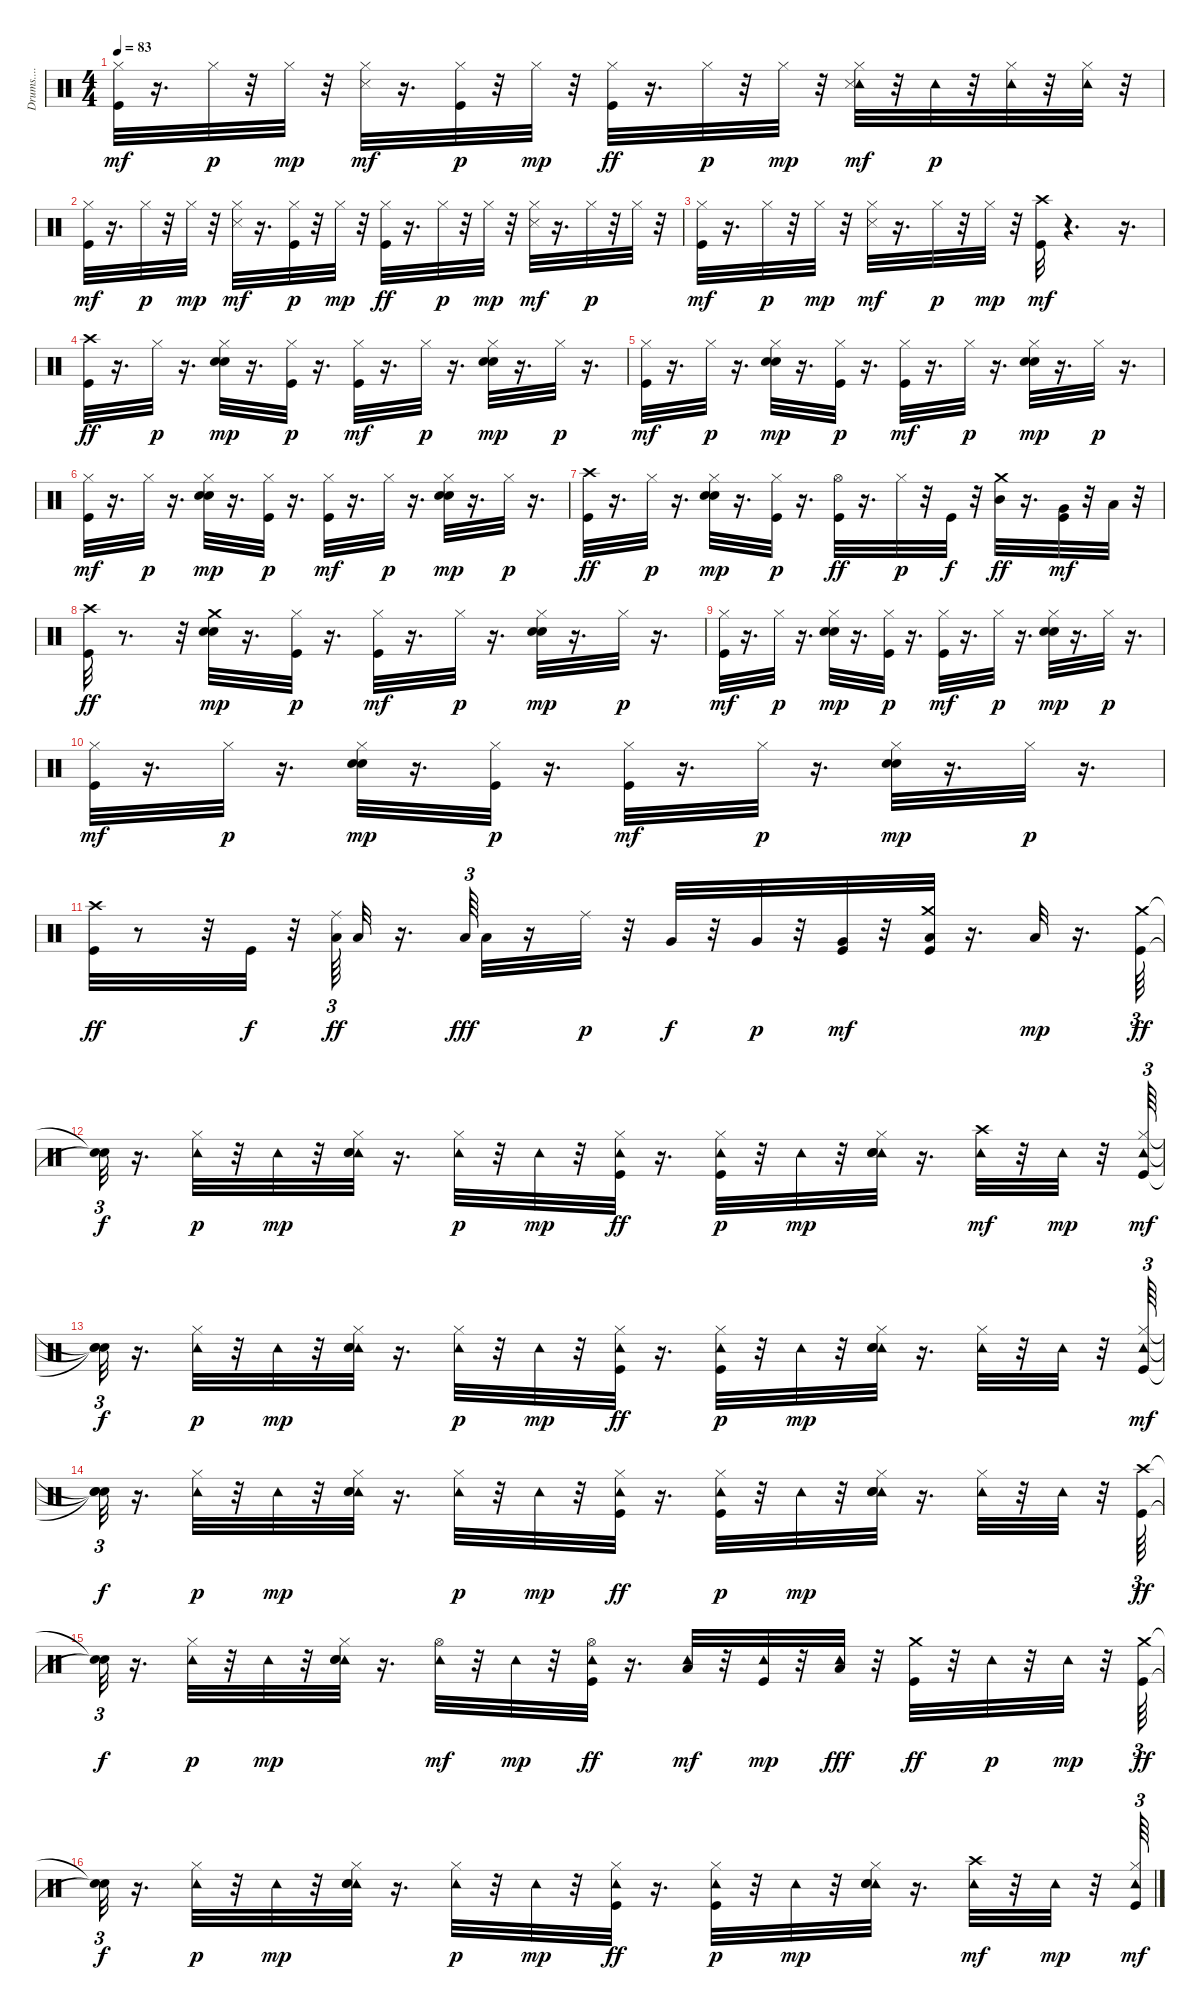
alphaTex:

\track ("Drums....           " "Drums.... ") {instrument percussion}
\staff {score}
\articulation defaults
\ts (4 4)
\tempo 83
\clef neutral
\ks c
("Kick (hit)" "Hi-Hat (closed)").32{dy mf} r.16{d} "Hi-Hat (closed)".32{dy p} r.32 "Hi-Hat (closed)".32{dy mp} r.32 ("Hi-Hat (closed)" "Snare (side stick) 3").32{dy mf} r.16{d} ("Kick (hit)" "Hi-Hat (closed)").32{dy p} r.32 "Hi-Hat (closed)".32{dy mp} r.32 ("Kick (hit)" "Hi-Hat (closed)").32{dy ff} r.16{d} "Hi-Hat (closed)".32{dy p} r.32 "Hi-Hat (closed)".32{dy mp} r.32 ("Tambourine (hit)" "Hi-Hat (closed)" "Snare (side stick) 3").32{dy mf} r.32 "Tambourine (hit)".32{dy p} r.32 ("Tambourine (hit)" "Hi-Hat (closed)").32 r.32 ("Tambourine (hit)" "Hi-Hat (closed)").32 r.32 |
("Kick (hit)" "Hi-Hat (closed)").32{dy mf} r.16{d} "Hi-Hat (closed)".32{dy p} r.32 "Hi-Hat (closed)".32{dy mp} r.32 ("Hi-Hat (closed)" "Snare (side stick) 3").32{dy mf} r.16{d} ("Kick (hit)" "Hi-Hat (closed)").32{dy p} r.32 "Hi-Hat (closed)".32{dy mp} r.32 ("Kick (hit)" "Hi-Hat (closed)").32{dy ff} r.16{d} "Hi-Hat (closed)".32{dy p} r.32 "Hi-Hat (closed)".32{dy mp} r.32 ("Hi-Hat (closed)" "Snare (side stick) 3").32{dy mf} r.16{d} "Hi-Hat (closed)".32{dy p} r.32 "Hi-Hat (closed)".32 r.32 |
("Kick (hit)" "Hi-Hat (closed)").32{dy mf} r.16{d} "Hi-Hat (closed)".32{dy p} r.32 "Hi-Hat (closed)".32{dy mp} r.32 ("Hi-Hat (closed)" "Snare (side stick) 3").32{dy mf} r.16{d} "Hi-Hat (closed)".32{dy p} r.32 "Hi-Hat (closed)".32{dy mp} r.32 ("Kick (hit)" "Crash high (hit)").32{dy mf} r.4{d} r.16{d} |
("Kick (hit)" "Crash high (hit)").32{dy ff} r.16{d} "Hi-Hat (closed)".32{dy p} r.16{d} ("Snare (hit) 2" "Hi-Hat (closed)" "Electric Snare (hit)").32{dy mp} r.16{d} ("Kick (hit)" "Hi-Hat (closed)").32{dy p} r.16{d} ("Kick (hit)" "Hi-Hat (closed)").32{dy mf} r.16{d} "Hi-Hat (closed)".32{dy p} r.16{d} ("Snare (hit) 2" "Hi-Hat (closed)" "Electric Snare (hit)").32{dy mp} r.16{d} "Hi-Hat (closed)".32{dy p} r.16{d} |
("Kick (hit)" "Hi-Hat (closed)").32{dy mf} r.16{d} "Hi-Hat (closed)".32{dy p} r.16{d} ("Snare (hit) 2" "Hi-Hat (closed)" "Electric Snare (hit)").32{dy mp} r.16{d} ("Kick (hit)" "Hi-Hat (closed)").32{dy p} r.16{d} ("Kick (hit)" "Hi-Hat (closed)").32{dy mf} r.16{d} "Hi-Hat (closed)".32{dy p} r.16{d} ("Snare (hit) 2" "Hi-Hat (closed)" "Electric Snare (hit)").32{dy mp} r.16{d} "Hi-Hat (closed)".32{dy p} r.16{d} |
("Kick (hit)" "Hi-Hat (closed)").32{dy mf} r.16{d} "Hi-Hat (closed)".32{dy p} r.16{d} ("Snare (hit) 2" "Hi-Hat (closed)" "Electric Snare (hit)").32{dy mp} r.16{d} ("Kick (hit)" "Hi-Hat (closed)").32{dy p} r.16{d} ("Kick (hit)" "Hi-Hat (closed)").32{dy mf} r.16{d} "Hi-Hat (closed)".32{dy p} r.16{d} ("Snare (hit) 2" "Hi-Hat (closed)" "Electric Snare (hit)").32{dy mp} r.16{d} "Hi-Hat (closed)".32{dy p} r.16{d} |
("Kick (hit)" "Crash high (hit)").32{dy ff} r.16{d} "Hi-Hat (closed)".32{dy p} r.16{d} ("Snare (hit) 2" "Hi-Hat (closed)" "Electric Snare (hit)").32{dy mp} r.16{d} ("Kick (hit)" "Hi-Hat (closed)").32{dy p} r.16{d} ("Kick (hit)" "Hi-Hat (open)").32{dy ff} r.16{d} "Hi-Hat (closed)".32{dy p} r.32 "Kick (hit)".32{dy f} r.32 ("Crash medium (hit)" "Mid Tom (hit)").32{dy ff} r.16{d} ("Kick (hit)" "Very Low Tom (hit)").32{dy mf} r.32 "Low Floor Tom (hit)".32 r.32 |
("Kick (hit)" "Crash high (hit)").32{dy ff} r.8{d} r.32 ("Snare (hit) 2" "Crash medium (hit)" "Electric Snare (hit)").32{dy mp} r.16{d} ("Kick (hit)" "Hi-Hat (closed)").32{dy p} r.16{d} ("Kick (hit)" "Hi-Hat (closed)").32{dy mf} r.16{d} "Hi-Hat (closed)".32{dy p} r.16{d} ("Snare (hit) 2" "Hi-Hat (closed)" "Electric Snare (hit)").32{dy mp} r.16{d} "Hi-Hat (closed)".32{dy p} r.16{d} |
("Kick (hit)" "Hi-Hat (closed)").32{dy mf} r.16{d} "Hi-Hat (closed)".32{dy p} r.16{d} ("Snare (hit) 2" "Hi-Hat (closed)" "Electric Snare (hit)").32{dy mp} r.16{d} ("Kick (hit)" "Hi-Hat (closed)").32{dy p} r.16{d} ("Kick (hit)" "Hi-Hat (closed)").32{dy mf} r.16{d} "Hi-Hat (closed)".32{dy p} r.16{d} ("Snare (hit) 2" "Hi-Hat (closed)" "Electric Snare (hit)").32{dy mp} r.16{d} "Hi-Hat (closed)".32{dy p} r.16{d} |
("Kick (hit)" "Hi-Hat (closed)").32{dy mf} r.16{d} "Hi-Hat (closed)".32{dy p} r.16{d} ("Snare (hit) 2" "Hi-Hat (closed)" "Electric Snare (hit)").32{dy mp} r.16{d} ("Kick (hit)" "Hi-Hat (closed)").32{dy p} r.16{d} ("Kick (hit)" "Hi-Hat (closed)").32{dy mf} r.16{d} "Hi-Hat (closed)".32{dy p} r.16{d} ("Snare (hit) 2" "Hi-Hat (closed)" "Electric Snare (hit)").32{dy mp} r.16{d} "Hi-Hat (closed)".32{dy p} r.16{d} |
("Kick (hit)" "Crash high (hit)").32{dy ff} r.8 r.32 "Kick (hit)".32{dy f} r.32 ("Ride (middle)" "Low Tom (hit)").64{tu (3 2) dy ff} "Low Tom (hit)".32 r.16{d} "Low Tom (hit)".64{tu (3 2) dy fff} "Low Tom (hit)".32 r.16 "Ride (middle)".32{dy p} r.32 "Very Low Tom (hit)".32{dy f} r.32 "Very Low Tom (hit)".32{dy p} r.32 ("Kick (hit)" "Very Low Tom (hit)").32{dy mf} r.32 ("Kick (hit)" "Crash medium (hit)" "Low Floor Tom (hit)").32 r.16{d} "Low Floor Tom (hit)".32{dy mp} r.16{d} ("Kick (hit)" "Crash medium (hit)").64{tu (3 2) dy ff} |
("Snare (hit)"{t} "Snare (hit)"{t}).32{tu (3 2) dy f} r.16{d} ("Tambourine (hit)" "Hi-Hat (closed)").32{dy p} r.32 "Tambourine (hit)".32{dy mp} r.32 ("Tambourine (hit)" "Snare (hit) 2" "Hi-Hat (closed)" "Electric Snare (hit)").32 r.16{d} ("Tambourine (hit)" "Hi-Hat (closed)").32{dy p} r.32 "Tambourine (hit)".32{dy mp} r.32 ("Kick (hit)" "Tambourine (hit)" "Hi-Hat (closed)").32{dy ff} r.16{d} ("Kick (hit)" "Tambourine (hit)" "Hi-Hat (closed)").32{dy p} r.32 "Tambourine (hit)".32{dy mp} r.32 ("Tambourine (hit)" "Snare (hit) 2" "Hi-Hat (closed)" "Electric Snare (hit)").32 r.16{d} ("Tambourine (hit)" "Crash high (hit)").32{dy mf} r.32 "Tambourine (hit)".32{dy mp} r.32 ("Kick (hit)" "Tambourine (hit)" "Hi-Hat (closed)").64{tu (3 2) dy mf} |
("Snare (hit)"{t} "Snare (hit)"{t} "Snare (hit)"{t}).32{tu (3 2) dy f} r.16{d} ("Tambourine (hit)" "Hi-Hat (closed)").32{dy p} r.32 "Tambourine (hit)".32{dy mp} r.32 ("Tambourine (hit)" "Snare (hit) 2" "Hi-Hat (closed)" "Electric Snare (hit)").32 r.16{d} ("Tambourine (hit)" "Hi-Hat (closed)").32{dy p} r.32 "Tambourine (hit)".32{dy mp} r.32 ("Kick (hit)" "Tambourine (hit)" "Hi-Hat (closed)").32{dy ff} r.16{d} ("Kick (hit)" "Tambourine (hit)" "Hi-Hat (closed)").32{dy p} r.32 "Tambourine (hit)".32{dy mp} r.32 ("Tambourine (hit)" "Snare (hit) 2" "Hi-Hat (closed)" "Electric Snare (hit)").32 r.16{d} ("Tambourine (hit)" "Hi-Hat (closed)").32 r.32 "Tambourine (hit)".32 r.32 ("Kick (hit)" "Tambourine (hit)" "Hi-Hat (closed)").64{tu (3 2) dy mf} |
("Snare (hit)"{t} "Snare (hit)"{t} "Snare (hit)"{t}).32{tu (3 2) dy f} r.16{d} ("Tambourine (hit)" "Hi-Hat (closed)").32{dy p} r.32 "Tambourine (hit)".32{dy mp} r.32 ("Tambourine (hit)" "Snare (hit) 2" "Hi-Hat (closed)" "Electric Snare (hit)").32 r.16{d} ("Tambourine (hit)" "Hi-Hat (closed)").32{dy p} r.32 "Tambourine (hit)".32{dy mp} r.32 ("Kick (hit)" "Tambourine (hit)" "Hi-Hat (closed)").32{dy ff} r.16{d} ("Kick (hit)" "Tambourine (hit)" "Hi-Hat (closed)").32{dy p} r.32 "Tambourine (hit)".32{dy mp} r.32 ("Tambourine (hit)" "Snare (hit) 2" "Hi-Hat (closed)" "Electric Snare (hit)").32 r.16{d} ("Tambourine (hit)" "Hi-Hat (closed)").32 r.32 "Tambourine (hit)".32 r.32 ("Kick (hit)" "Crash high (hit)").64{tu (3 2) dy ff} |
("Snare (hit)"{t} "Snare (hit)"{t}).32{tu (3 2) dy f} r.16{d} ("Tambourine (hit)" "Hi-Hat (closed)").32{dy p} r.32 "Tambourine (hit)".32{dy mp} r.32 ("Tambourine (hit)" "Snare (hit) 2" "Hi-Hat (closed)" "Electric Snare (hit)").32 r.16{d} ("Tambourine (hit)" "Hi-Hat (open)").32{dy mf} r.32 "Tambourine (hit)".32{dy mp} r.32 ("Kick (hit)" "Tambourine (hit)" "Hi-Hat (open)").32{dy ff} r.16{d} ("Tambourine (hit)" "Low Tom (hit)").32{dy mf} r.32 ("Kick (hit)" "Tambourine (hit)").32{dy mp} r.32 ("Tambourine (hit)" "Low Tom (hit)").32{dy fff} r.32 ("Kick (hit)" "Crash medium (hit)").32{dy ff} r.32 "Tambourine (hit)".32{dy p} r.32 "Tambourine (hit)".32{dy mp} r.32 ("Kick (hit)" "Crash medium (hit)").64{tu (3 2) dy ff} |
("Snare (hit)"{t} "Snare (hit)"{t}).32{tu (3 2) dy f} r.16{d} ("Tambourine (hit)" "Hi-Hat (closed)").32{dy p} r.32 "Tambourine (hit)".32{dy mp} r.32 ("Tambourine (hit)" "Snare (hit) 2" "Hi-Hat (closed)" "Electric Snare (hit)").32 r.16{d} ("Tambourine (hit)" "Hi-Hat (closed)").32{dy p} r.32 "Tambourine (hit)".32{dy mp} r.32 ("Kick (hit)" "Tambourine (hit)" "Hi-Hat (closed)").32{dy ff} r.16{d} ("Kick (hit)" "Tambourine (hit)" "Hi-Hat (closed)").32{dy p} r.32 "Tambourine (hit)".32{dy mp} r.32 ("Tambourine (hit)" "Snare (hit) 2" "Hi-Hat (closed)" "Electric Snare (hit)").32 r.16{d} ("Tambourine (hit)" "Crash high (hit)").32{dy mf} r.32 "Tambourine (hit)".32{dy mp} r.32 ("Kick (hit)" "Tambourine (hit)" "Hi-Hat (closed)").64{tu (3 2) dy mf}
